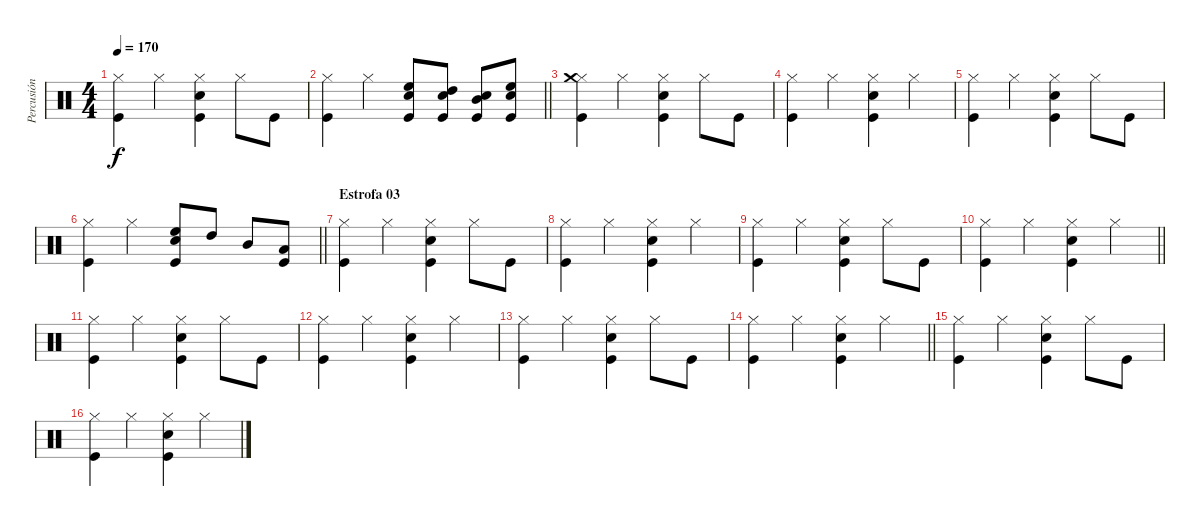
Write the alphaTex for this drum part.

\track ("Percusión" "Percusión") {instrument percussion}
\staff {score}
\articulation defaults
\ts (4 4)
\tempo 170
\clef neutral
\ks c
("Hi-Hat (closed)" "Kick (hit)").4{dy f} "Hi-Hat (closed)".4 ("Hi-Hat (closed)" "Snare (hit) 2" "Kick (hit)").4 "Hi-Hat (closed)".8 "Kick (hit)".8 |
\barLineRight lightlight
("Hi-Hat (closed)" "Kick (hit)").4 "Hi-Hat (closed)".4 ("Snare (hit) 2" "High Floor Tom (hit)" "Kick (hit)").8 ("Snare (hit) 2" "High Tom (hit)" "Kick (hit)").8 ("Snare (hit) 2" "Mid Tom (hit)" "Kick (hit)").8 ("Snare (hit) 2" "High Floor Tom (hit)" "Kick (hit)").8 |
("Hi-Hat (closed)" "Crash medium (hit)" "Kick (hit)").4 "Hi-Hat (closed)".4 ("Hi-Hat (closed)" "Snare (hit) 2" "Kick (hit)").4 "Hi-Hat (closed)".8 "Kick (hit)".8 |
("Hi-Hat (closed)" "Kick (hit)").4 "Hi-Hat (closed)".4 ("Hi-Hat (closed)" "Snare (hit) 2" "Kick (hit)").4 "Hi-Hat (closed)".4 |
("Hi-Hat (closed)" "Kick (hit)").4 "Hi-Hat (closed)".4 ("Hi-Hat (closed)" "Snare (hit) 2" "Kick (hit)").4 "Hi-Hat (closed)".8 "Kick (hit)".8 |
\barLineRight lightlight
("Hi-Hat (closed)" "Kick (hit)").4 "Hi-Hat (closed)".4 ("High Floor Tom (hit)" "Snare (hit) 2" "Kick (hit)").8 "High Tom (hit)".8 "Mid Tom (hit)".8 ("Low Tom (hit)" "Kick (hit)").8 |
\section ("" "Estrofa 03")
("Hi-Hat (closed)" "Kick (hit)").4 "Hi-Hat (closed)".4 ("Hi-Hat (closed)" "Snare (hit) 2" "Kick (hit)").4 "Hi-Hat (closed)".8 "Kick (hit)".8 |
("Hi-Hat (closed)" "Kick (hit)").4 "Hi-Hat (closed)".4 ("Hi-Hat (closed)" "Snare (hit) 2" "Kick (hit)").4 "Hi-Hat (closed)".4 |
("Hi-Hat (closed)" "Kick (hit)").4 "Hi-Hat (closed)".4 ("Hi-Hat (closed)" "Snare (hit) 2" "Kick (hit)").4 "Hi-Hat (closed)".8 "Kick (hit)".8 |
\barLineRight lightlight
("Hi-Hat (closed)" "Kick (hit)").4 "Hi-Hat (closed)".4 ("Hi-Hat (closed)" "Snare (hit) 2" "Kick (hit)").4 "Hi-Hat (closed)".4 |
("Hi-Hat (closed)" "Kick (hit)").4 "Hi-Hat (closed)".4 ("Hi-Hat (closed)" "Snare (hit) 2" "Kick (hit)").4 "Hi-Hat (closed)".8 "Kick (hit)".8 |
("Hi-Hat (closed)" "Kick (hit)").4 "Hi-Hat (closed)".4 ("Hi-Hat (closed)" "Snare (hit) 2" "Kick (hit)").4 "Hi-Hat (closed)".4 |
("Hi-Hat (closed)" "Kick (hit)").4 "Hi-Hat (closed)".4 ("Hi-Hat (closed)" "Snare (hit) 2" "Kick (hit)").4 "Hi-Hat (closed)".8 "Kick (hit)".8 |
\barLineRight lightlight
("Hi-Hat (closed)" "Kick (hit)").4 "Hi-Hat (closed)".4 ("Hi-Hat (closed)" "Snare (hit) 2" "Kick (hit)").4 "Hi-Hat (closed)".4 |
("Hi-Hat (closed)" "Kick (hit)").4 "Hi-Hat (closed)".4 ("Hi-Hat (closed)" "Snare (hit) 2" "Kick (hit)").4 "Hi-Hat (closed)".8 "Kick (hit)".8 |
("Hi-Hat (closed)" "Kick (hit)").4 "Hi-Hat (closed)".4 ("Hi-Hat (closed)" "Snare (hit) 2" "Kick (hit)").4 "Hi-Hat (closed)".4
